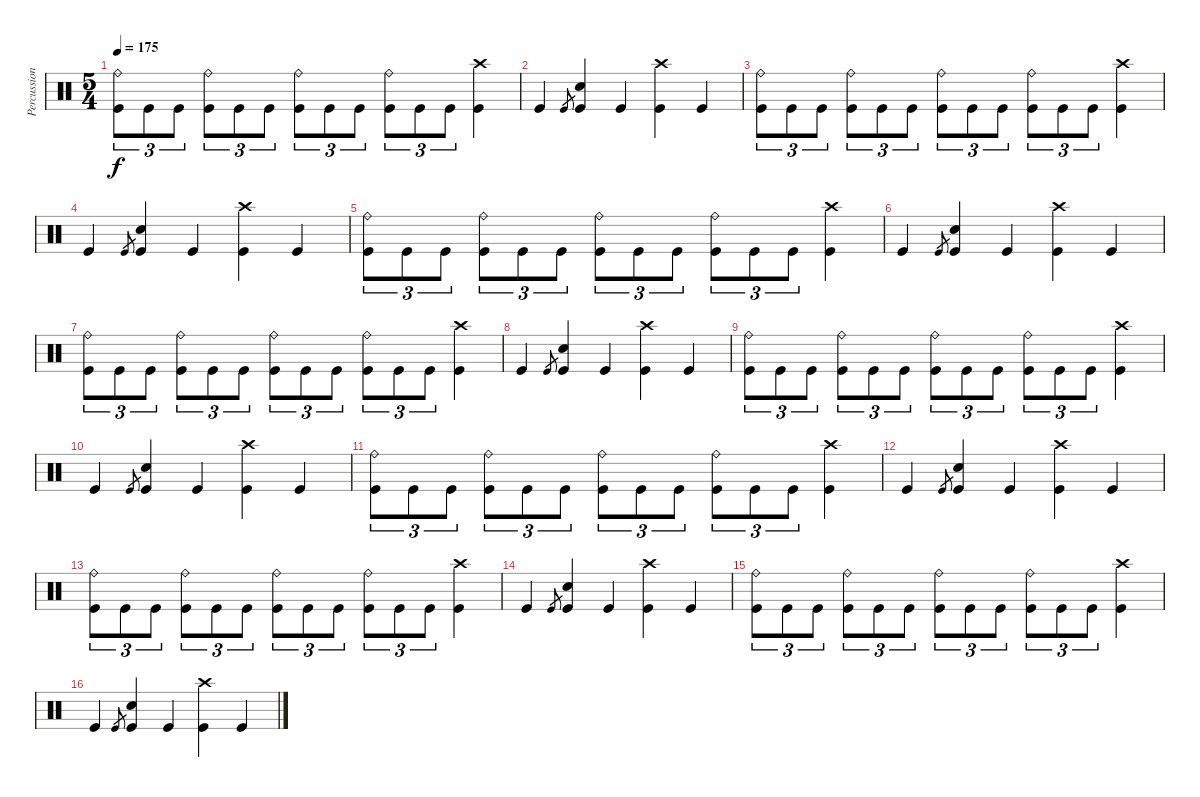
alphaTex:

\track ("Percussion" "Percussion") {instrument percussion}
\staff {score}
\articulation defaults
\ts (5 4)
\tempo 175
\clef neutral
\ks c
("Ride (bell)" "Kick (hit)").8{tu (3 2) dy f} "Kick (hit)".8{tu (3 2)} "Kick (hit)".8{tu (3 2)} ("Ride (bell)" "Kick (hit)").8{tu (3 2)} "Kick (hit)".8{tu (3 2)} "Kick (hit)".8{tu (3 2)} ("Ride (bell)" "Kick (hit)").8{tu (3 2)} "Kick (hit)".8{tu (3 2)} "Kick (hit)".8{tu (3 2)} ("Ride (bell)" "Kick (hit)").8{tu (3 2)} "Kick (hit)".8{tu (3 2)} "Kick (hit)".8{tu (3 2)} ("Crash high (hit)" "Kick (hit)").4 |
"Kick (hit)".4 "Kick (hit)".8{gr} ("Electric Snare (hit)" "Kick (hit)").4 "Kick (hit)".4 ("Crash high (hit)" "Kick (hit)").4 "Kick (hit)".4 |
("Ride (bell)" "Kick (hit)").8{tu (3 2)} "Kick (hit)".8{tu (3 2)} "Kick (hit)".8{tu (3 2)} ("Ride (bell)" "Kick (hit)").8{tu (3 2)} "Kick (hit)".8{tu (3 2)} "Kick (hit)".8{tu (3 2)} ("Ride (bell)" "Kick (hit)").8{tu (3 2)} "Kick (hit)".8{tu (3 2)} "Kick (hit)".8{tu (3 2)} ("Ride (bell)" "Kick (hit)").8{tu (3 2)} "Kick (hit)".8{tu (3 2)} "Kick (hit)".8{tu (3 2)} ("Crash high (hit)" "Kick (hit)").4 |
"Kick (hit)".4 "Kick (hit)".8{gr} ("Electric Snare (hit)" "Kick (hit)").4 "Kick (hit)".4 ("Crash high (hit)" "Kick (hit)").4 "Kick (hit)".4 |
("Ride (bell)" "Kick (hit)").8{tu (3 2)} "Kick (hit)".8{tu (3 2)} "Kick (hit)".8{tu (3 2)} ("Ride (bell)" "Kick (hit)").8{tu (3 2)} "Kick (hit)".8{tu (3 2)} "Kick (hit)".8{tu (3 2)} ("Ride (bell)" "Kick (hit)").8{tu (3 2)} "Kick (hit)".8{tu (3 2)} "Kick (hit)".8{tu (3 2)} ("Ride (bell)" "Kick (hit)").8{tu (3 2)} "Kick (hit)".8{tu (3 2)} "Kick (hit)".8{tu (3 2)} ("Crash high (hit)" "Kick (hit)").4 |
"Kick (hit)".4 "Kick (hit)".8{gr} ("Electric Snare (hit)" "Kick (hit)").4 "Kick (hit)".4 ("Crash high (hit)" "Kick (hit)").4 "Kick (hit)".4 |
("Ride (bell)" "Kick (hit)").8{tu (3 2)} "Kick (hit)".8{tu (3 2)} "Kick (hit)".8{tu (3 2)} ("Ride (bell)" "Kick (hit)").8{tu (3 2)} "Kick (hit)".8{tu (3 2)} "Kick (hit)".8{tu (3 2)} ("Ride (bell)" "Kick (hit)").8{tu (3 2)} "Kick (hit)".8{tu (3 2)} "Kick (hit)".8{tu (3 2)} ("Ride (bell)" "Kick (hit)").8{tu (3 2)} "Kick (hit)".8{tu (3 2)} "Kick (hit)".8{tu (3 2)} ("Crash high (hit)" "Kick (hit)").4 |
"Kick (hit)".4 "Kick (hit)".8{gr} ("Electric Snare (hit)" "Kick (hit)").4 "Kick (hit)".4 ("Crash high (hit)" "Kick (hit)").4 "Kick (hit)".4 |
("Ride (bell)" "Kick (hit)").8{tu (3 2)} "Kick (hit)".8{tu (3 2)} "Kick (hit)".8{tu (3 2)} ("Ride (bell)" "Kick (hit)").8{tu (3 2)} "Kick (hit)".8{tu (3 2)} "Kick (hit)".8{tu (3 2)} ("Ride (bell)" "Kick (hit)").8{tu (3 2)} "Kick (hit)".8{tu (3 2)} "Kick (hit)".8{tu (3 2)} ("Ride (bell)" "Kick (hit)").8{tu (3 2)} "Kick (hit)".8{tu (3 2)} "Kick (hit)".8{tu (3 2)} ("Crash high (hit)" "Kick (hit)").4 |
"Kick (hit)".4 "Kick (hit)".8{gr} ("Electric Snare (hit)" "Kick (hit)").4 "Kick (hit)".4 ("Crash high (hit)" "Kick (hit)").4 "Kick (hit)".4 |
("Ride (bell)" "Kick (hit)").8{tu (3 2)} "Kick (hit)".8{tu (3 2)} "Kick (hit)".8{tu (3 2)} ("Ride (bell)" "Kick (hit)").8{tu (3 2)} "Kick (hit)".8{tu (3 2)} "Kick (hit)".8{tu (3 2)} ("Ride (bell)" "Kick (hit)").8{tu (3 2)} "Kick (hit)".8{tu (3 2)} "Kick (hit)".8{tu (3 2)} ("Ride (bell)" "Kick (hit)").8{tu (3 2)} "Kick (hit)".8{tu (3 2)} "Kick (hit)".8{tu (3 2)} ("Crash high (hit)" "Kick (hit)").4 |
"Kick (hit)".4 "Kick (hit)".8{gr} ("Electric Snare (hit)" "Kick (hit)").4 "Kick (hit)".4 ("Crash high (hit)" "Kick (hit)").4 "Kick (hit)".4 |
("Ride (bell)" "Kick (hit)").8{tu (3 2)} "Kick (hit)".8{tu (3 2)} "Kick (hit)".8{tu (3 2)} ("Ride (bell)" "Kick (hit)").8{tu (3 2)} "Kick (hit)".8{tu (3 2)} "Kick (hit)".8{tu (3 2)} ("Ride (bell)" "Kick (hit)").8{tu (3 2)} "Kick (hit)".8{tu (3 2)} "Kick (hit)".8{tu (3 2)} ("Ride (bell)" "Kick (hit)").8{tu (3 2)} "Kick (hit)".8{tu (3 2)} "Kick (hit)".8{tu (3 2)} ("Crash high (hit)" "Kick (hit)").4 |
"Kick (hit)".4 "Kick (hit)".8{gr} ("Electric Snare (hit)" "Kick (hit)").4 "Kick (hit)".4 ("Crash high (hit)" "Kick (hit)").4 "Kick (hit)".4 |
("Ride (bell)" "Kick (hit)").8{tu (3 2)} "Kick (hit)".8{tu (3 2)} "Kick (hit)".8{tu (3 2)} ("Ride (bell)" "Kick (hit)").8{tu (3 2)} "Kick (hit)".8{tu (3 2)} "Kick (hit)".8{tu (3 2)} ("Ride (bell)" "Kick (hit)").8{tu (3 2)} "Kick (hit)".8{tu (3 2)} "Kick (hit)".8{tu (3 2)} ("Ride (bell)" "Kick (hit)").8{tu (3 2)} "Kick (hit)".8{tu (3 2)} "Kick (hit)".8{tu (3 2)} ("Crash high (hit)" "Kick (hit)").4 |
"Kick (hit)".4 "Kick (hit)".8{gr} ("Electric Snare (hit)" "Kick (hit)").4 "Kick (hit)".4 ("Crash high (hit)" "Kick (hit)").4 "Kick (hit)".4
